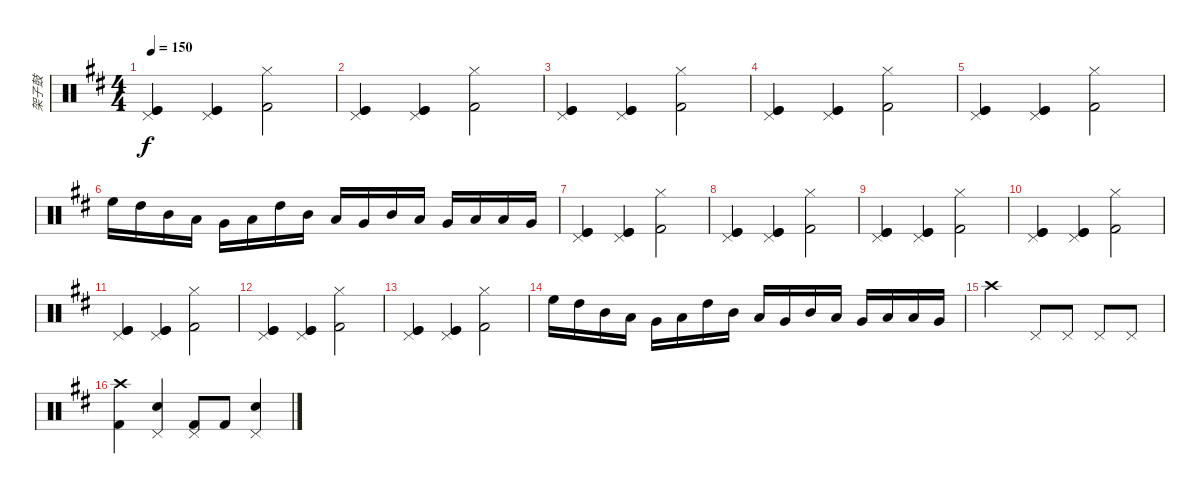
\track ("架子鼓" "架子鼓") {instrument percussion}
\staff {score}
\articulation defaults
\ts (4 4)
\tempo 150
\clef neutral
\ks bminor
("Kick (hit)" "Kick (hit)" "Pedal Hi-Hat (hit)").4{dy f} ("Kick (hit)" "Kick (hit)" "Pedal Hi-Hat (hit)").4 ("Kick (hit) 2" "Hi-Hat (closed)").2 |
("Kick (hit)" "Kick (hit)" "Pedal Hi-Hat (hit)").4 ("Kick (hit)" "Kick (hit)" "Pedal Hi-Hat (hit)").4 ("Kick (hit) 2" "Hi-Hat (closed)").2 |
("Kick (hit)" "Kick (hit)" "Pedal Hi-Hat (hit)").4 ("Kick (hit)" "Kick (hit)" "Pedal Hi-Hat (hit)").4 ("Kick (hit) 2" "Hi-Hat (closed)").2 |
("Kick (hit)" "Kick (hit)" "Pedal Hi-Hat (hit)").4 ("Kick (hit)" "Kick (hit)" "Pedal Hi-Hat (hit)").4 ("Kick (hit) 2" "Hi-Hat (closed)").2 |
("Kick (hit)" "Kick (hit)" "Pedal Hi-Hat (hit)").4 ("Kick (hit)" "Kick (hit)" "Pedal Hi-Hat (hit)").4 ("Kick (hit) 2" "Hi-Hat (closed)").2 |
"High Floor Tom (hit)".16 "High Tom (hit)".16 "Mid Tom (hit)".16 "Low Tom (hit)".16 "Very Low Tom (hit)".16 "Low Floor Tom (hit)".16 "High Tom (hit)".16 "Mid Tom (hit)".16 "Low Tom (hit)".16 "Very Low Tom (hit)".16 "Mid Tom (hit)".16 "Low Tom (hit)".16 "Very Low Tom (hit)".16 "Low Floor Tom (hit)".16 "Low Tom (hit)".16 "Very Low Tom (hit)".16 |
("Kick (hit)" "Kick (hit)" "Pedal Hi-Hat (hit)").4 ("Kick (hit)" "Kick (hit)" "Pedal Hi-Hat (hit)").4 ("Kick (hit) 2" "Hi-Hat (closed)").2 |
("Kick (hit)" "Kick (hit)" "Pedal Hi-Hat (hit)").4 ("Kick (hit)" "Kick (hit)" "Pedal Hi-Hat (hit)").4 ("Kick (hit) 2" "Hi-Hat (closed)").2 |
("Kick (hit)" "Kick (hit)" "Pedal Hi-Hat (hit)").4 ("Kick (hit)" "Kick (hit)" "Pedal Hi-Hat (hit)").4 ("Kick (hit) 2" "Hi-Hat (closed)").2 |
("Kick (hit)" "Kick (hit)" "Pedal Hi-Hat (hit)").4 ("Kick (hit)" "Kick (hit)" "Pedal Hi-Hat (hit)").4 ("Kick (hit) 2" "Hi-Hat (closed)").2 |
("Kick (hit)" "Kick (hit)" "Pedal Hi-Hat (hit)").4 ("Kick (hit)" "Kick (hit)" "Pedal Hi-Hat (hit)").4 ("Kick (hit) 2" "Hi-Hat (closed)").2 |
("Kick (hit)" "Kick (hit)" "Pedal Hi-Hat (hit)").4 ("Kick (hit)" "Kick (hit)" "Pedal Hi-Hat (hit)").4 ("Kick (hit) 2" "Hi-Hat (closed)").2 |
("Kick (hit)" "Kick (hit)" "Pedal Hi-Hat (hit)").4 ("Kick (hit)" "Kick (hit)" "Pedal Hi-Hat (hit)").4 ("Kick (hit) 2" "Hi-Hat (closed)").2 |
"High Floor Tom (hit)".16 "High Tom (hit)".16 "Mid Tom (hit)".16 "Low Tom (hit)".16 "Very Low Tom (hit)".16 "Low Floor Tom (hit)".16 "High Tom (hit)".16 "Mid Tom (hit)".16 "Low Tom (hit)".16 "Very Low Tom (hit)".16 "Mid Tom (hit)".16 "Low Tom (hit)".16 "Very Low Tom (hit)".16 "Low Floor Tom (hit)".16 "Low Tom (hit)".16 "Very Low Tom (hit)".16 |
"Crash high (hit)".2 "Pedal Hi-Hat (hit)".8 "Pedal Hi-Hat (hit)".8 "Pedal Hi-Hat (hit)".8 "Pedal Hi-Hat (hit)".8 |
("Crash high (hit)" "Kick (hit) 2").4 ("Pedal Hi-Hat (hit)" "Snare (hit) 2").4 ("Pedal Hi-Hat (hit)" "Kick (hit) 2").8 "Kick (hit) 2".8 ("Pedal Hi-Hat (hit)" "Snare (hit) 2").4
